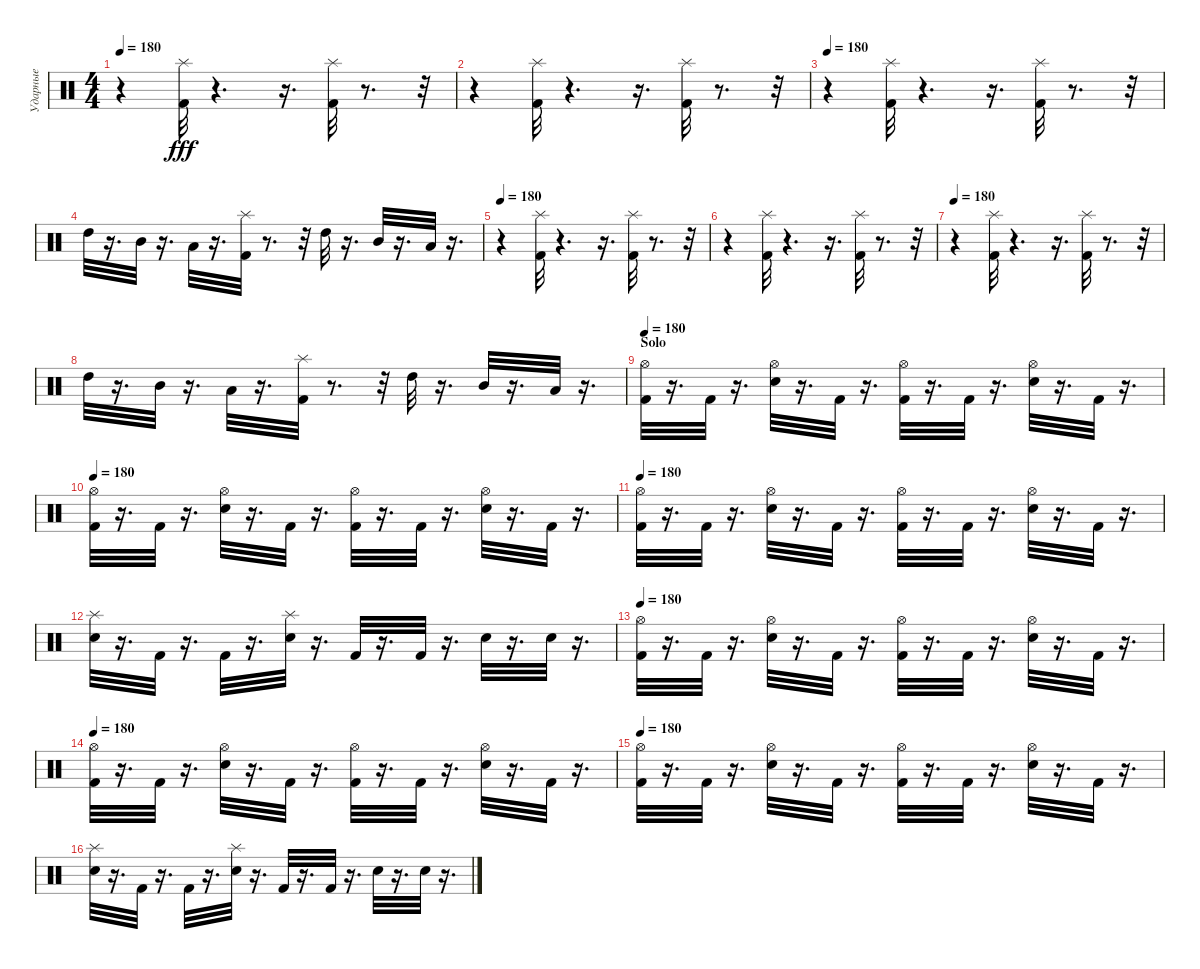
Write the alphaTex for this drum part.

\track ("Ударные" "Ударные") {instrument percussion}
\staff {score}
\articulation defaults
\ts (4 4)
\tempo 180
\clef neutral
\ks c
r.4{dy fff} ("Kick (hit) 2" "Splash (hit)").32 r.4{d} r.16{d} ("Splash (hit)" "Kick (hit) 2").32 r.8{d} r.32 |
r.4 ("Kick (hit) 2" "Splash (hit)").32 r.4{d} r.16{d} ("Kick (hit) 2" "Splash (hit)").32 r.8{d} r.32 |
\tempo 180
r.4 ("Kick (hit) 2" "Splash (hit)").32 r.4{d} r.16{d} ("Splash (hit)" "Kick (hit) 2").32 r.8{d} r.32 |
"High Tom (hit)".32 r.16{d} "Mid Tom (hit)".32 r.16{d} "Low Tom (hit)".32 r.16{d} ("Kick (hit) 2" "Splash (hit)").32 r.8{d} r.32 "High Tom (hit)".32 r.16{d} "Mid Tom (hit)".32 r.16{d} "Low Tom (hit)".32 r.16{d} |
\tempo 180
r.4 ("Kick (hit) 2" "Splash (hit)").32 r.4{d} r.16{d} ("Splash (hit)" "Kick (hit) 2").32 r.8{d} r.32 |
r.4 ("Kick (hit) 2" "Splash (hit)").32 r.4{d} r.16{d} ("Splash (hit)" "Kick (hit) 2").32 r.8{d} r.32 |
\tempo 180
r.4 ("Kick (hit) 2" "Splash (hit)").32 r.4{d} r.16{d} ("Kick (hit) 2" "Splash (hit)").32 r.8{d} r.32 |
"High Tom (hit)".32 r.16{d} "Mid Tom (hit)".32 r.16{d} "Low Tom (hit)".32 r.16{d} ("Splash (hit)" "Kick (hit) 2").32 r.8{d} r.32 "High Tom (hit)".32 r.16{d} "Mid Tom (hit)".32 r.16{d} "Low Tom (hit)".32 r.16{d} |
\section ("" "Solo")
\tempo 180
("Hi-Hat (open)" "Kick (hit) 2").32 r.16{d} "Kick (hit) 2".32 r.16{d} ("Hi-Hat (open)" "Snare (hit) 2").32 r.16{d} "Kick (hit) 2".32 r.16{d} ("Kick (hit) 2" "Hi-Hat (open)").32 r.16{d} "Kick (hit) 2".32 r.16{d} ("Snare (hit) 2" "Hi-Hat (open)").32 r.16{d} "Kick (hit) 2".32 r.16{d} |
\tempo 180
("Hi-Hat (open)" "Kick (hit) 2").32 r.16{d} "Kick (hit) 2".32 r.16{d} ("Hi-Hat (open)" "Snare (hit) 2").32 r.16{d} "Kick (hit) 2".32 r.16{d} ("Hi-Hat (open)" "Kick (hit) 2").32 r.16{d} "Kick (hit) 2".32 r.16{d} ("Snare (hit) 2" "Hi-Hat (open)").32 r.16{d} "Kick (hit) 2".32 r.16{d} |
\tempo 180
("Hi-Hat (open)" "Kick (hit) 2").32 r.16{d} "Kick (hit) 2".32 r.16{d} ("Snare (hit) 2" "Hi-Hat (open)").32 r.16{d} "Kick (hit) 2".32 r.16{d} ("Hi-Hat (open)" "Kick (hit) 2").32 r.16{d} "Kick (hit) 2".32 r.16{d} ("Hi-Hat (open)" "Snare (hit) 2").32 r.16{d} "Kick (hit) 2".32 r.16{d} |
("Electric Snare (hit)" "Splash (hit)").32 r.16{d} "Kick (hit) 2".32 r.16{d} "Kick (hit) 2".32 r.16{d} ("Splash (hit)" "Electric Snare (hit)").32 r.16{d} "Kick (hit) 2".32 r.16{d} "Kick (hit) 2".32 r.16{d} "Electric Snare (hit)".32 r.16{d} "Electric Snare (hit)".32 r.16{d} |
\tempo 180
("Hi-Hat (open)" "Kick (hit) 2").32 r.16{d} "Kick (hit) 2".32 r.16{d} ("Snare (hit) 2" "Hi-Hat (open)").32 r.16{d} "Kick (hit) 2".32 r.16{d} ("Kick (hit) 2" "Hi-Hat (open)").32 r.16{d} "Kick (hit) 2".32 r.16{d} ("Snare (hit) 2" "Hi-Hat (open)").32 r.16{d} "Kick (hit) 2".32 r.16{d} |
\tempo 180
("Kick (hit) 2" "Hi-Hat (open)").32 r.16{d} "Kick (hit) 2".32 r.16{d} ("Snare (hit) 2" "Hi-Hat (open)").32 r.16{d} "Kick (hit) 2".32 r.16{d} ("Hi-Hat (open)" "Kick (hit) 2").32 r.16{d} "Kick (hit) 2".32 r.16{d} ("Hi-Hat (open)" "Snare (hit) 2").32 r.16{d} "Kick (hit) 2".32 r.16{d} |
\tempo 180
("Hi-Hat (open)" "Kick (hit) 2").32 r.16{d} "Kick (hit) 2".32 r.16{d} ("Snare (hit) 2" "Hi-Hat (open)").32 r.16{d} "Kick (hit) 2".32 r.16{d} ("Hi-Hat (open)" "Kick (hit) 2").32 r.16{d} "Kick (hit) 2".32 r.16{d} ("Hi-Hat (open)" "Snare (hit) 2").32 r.16{d} "Kick (hit) 2".32 r.16{d} |
("Electric Snare (hit)" "Splash (hit)").32 r.16{d} "Kick (hit) 2".32 r.16{d} "Kick (hit) 2".32 r.16{d} ("Electric Snare (hit)" "Splash (hit)").32 r.16{d} "Kick (hit) 2".32 r.16{d} "Kick (hit) 2".32 r.16{d} "Electric Snare (hit)".32 r.16{d} "Electric Snare (hit)".32 r.16{d}
